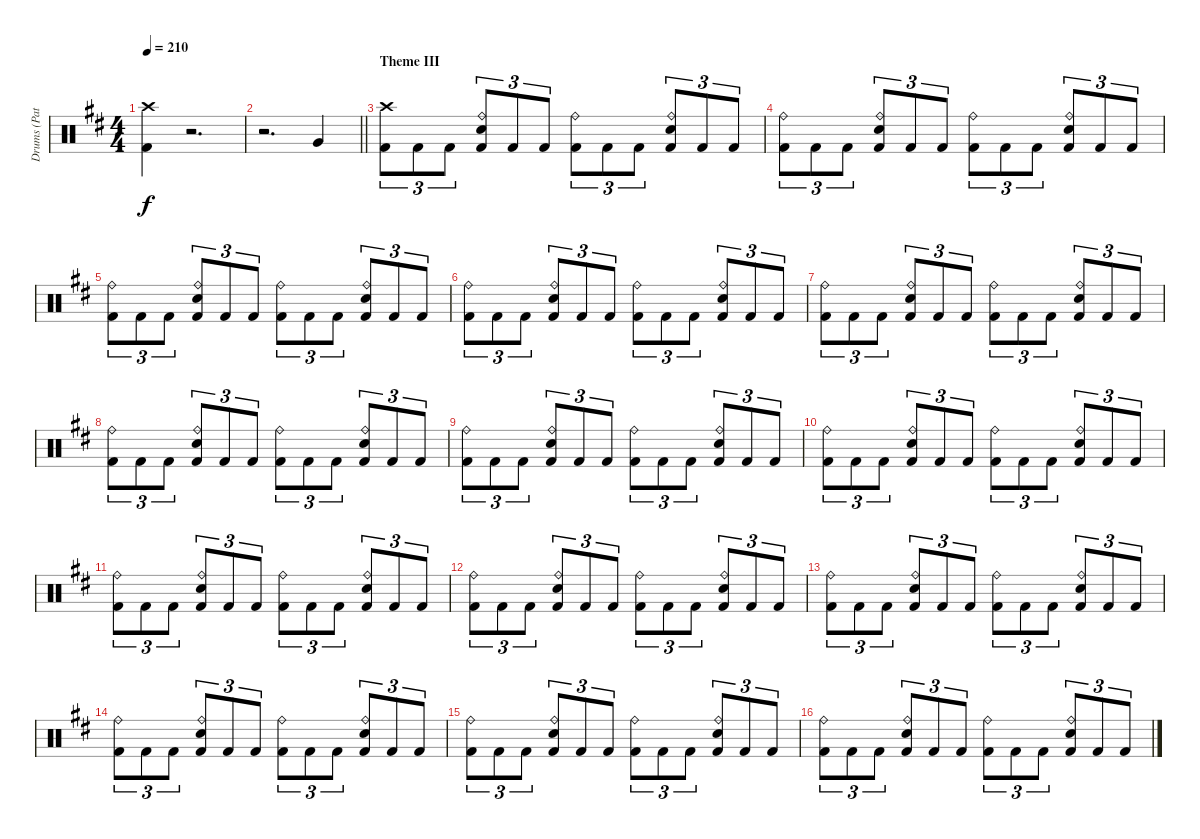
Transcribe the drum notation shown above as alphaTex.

\track ("Drums (Patrick Johansson)" "Drums (Pat") {instrument percussion}
\staff {score}
\articulation defaults
\ts (4 4)
\tempo 210
\clef neutral
\ks d
("Crash high (hit)" "Kick (hit) 2").4{dy f} r.2{d} |
\barLineRight lightlight
r.2{d} "Very Low Tom (hit)".4 |
\section ("" "Theme III")
("Crash high (hit)" "Kick (hit) 2").8{tu (3 2)} "Kick (hit) 2".8{tu (3 2)} "Kick (hit) 2".8{tu (3 2)} ("Ride (bell)" "Electric Snare (hit)" "Kick (hit) 2").8{tu (3 2)} "Kick (hit) 2".8{tu (3 2)} "Kick (hit) 2".8{tu (3 2)} ("Ride (bell)" "Kick (hit) 2").8{tu (3 2)} "Kick (hit) 2".8{tu (3 2)} "Kick (hit) 2".8{tu (3 2)} ("Ride (bell)" "Electric Snare (hit)" "Kick (hit) 2").8{tu (3 2)} "Kick (hit) 2".8{tu (3 2)} "Kick (hit) 2".8{tu (3 2)} |
("Ride (bell)" "Kick (hit) 2").8{tu (3 2)} "Kick (hit) 2".8{tu (3 2)} "Kick (hit) 2".8{tu (3 2)} ("Ride (bell)" "Electric Snare (hit)" "Kick (hit) 2").8{tu (3 2)} "Kick (hit) 2".8{tu (3 2)} "Kick (hit) 2".8{tu (3 2)} ("Ride (bell)" "Kick (hit) 2").8{tu (3 2)} "Kick (hit) 2".8{tu (3 2)} "Kick (hit) 2".8{tu (3 2)} ("Ride (bell)" "Electric Snare (hit)" "Kick (hit) 2").8{tu (3 2)} "Kick (hit) 2".8{tu (3 2)} "Kick (hit) 2".8{tu (3 2)} |
("Ride (bell)" "Kick (hit) 2").8{tu (3 2)} "Kick (hit) 2".8{tu (3 2)} "Kick (hit) 2".8{tu (3 2)} ("Ride (bell)" "Electric Snare (hit)" "Kick (hit) 2").8{tu (3 2)} "Kick (hit) 2".8{tu (3 2)} "Kick (hit) 2".8{tu (3 2)} ("Ride (bell)" "Kick (hit) 2").8{tu (3 2)} "Kick (hit) 2".8{tu (3 2)} "Kick (hit) 2".8{tu (3 2)} ("Ride (bell)" "Electric Snare (hit)" "Kick (hit) 2").8{tu (3 2)} "Kick (hit) 2".8{tu (3 2)} "Kick (hit) 2".8{tu (3 2)} |
("Ride (bell)" "Kick (hit) 2").8{tu (3 2)} "Kick (hit) 2".8{tu (3 2)} "Kick (hit) 2".8{tu (3 2)} ("Ride (bell)" "Electric Snare (hit)" "Kick (hit) 2").8{tu (3 2)} "Kick (hit) 2".8{tu (3 2)} "Kick (hit) 2".8{tu (3 2)} ("Ride (bell)" "Kick (hit) 2").8{tu (3 2)} "Kick (hit) 2".8{tu (3 2)} "Kick (hit) 2".8{tu (3 2)} ("Ride (bell)" "Electric Snare (hit)" "Kick (hit) 2").8{tu (3 2)} "Kick (hit) 2".8{tu (3 2)} "Kick (hit) 2".8{tu (3 2)} |
("Ride (bell)" "Kick (hit) 2").8{tu (3 2)} "Kick (hit) 2".8{tu (3 2)} "Kick (hit) 2".8{tu (3 2)} ("Ride (bell)" "Electric Snare (hit)" "Kick (hit) 2").8{tu (3 2)} "Kick (hit) 2".8{tu (3 2)} "Kick (hit) 2".8{tu (3 2)} ("Ride (bell)" "Kick (hit) 2").8{tu (3 2)} "Kick (hit) 2".8{tu (3 2)} "Kick (hit) 2".8{tu (3 2)} ("Ride (bell)" "Electric Snare (hit)" "Kick (hit) 2").8{tu (3 2)} "Kick (hit) 2".8{tu (3 2)} "Kick (hit) 2".8{tu (3 2)} |
("Ride (bell)" "Kick (hit) 2").8{tu (3 2)} "Kick (hit) 2".8{tu (3 2)} "Kick (hit) 2".8{tu (3 2)} ("Ride (bell)" "Electric Snare (hit)" "Kick (hit) 2").8{tu (3 2)} "Kick (hit) 2".8{tu (3 2)} "Kick (hit) 2".8{tu (3 2)} ("Ride (bell)" "Kick (hit) 2").8{tu (3 2)} "Kick (hit) 2".8{tu (3 2)} "Kick (hit) 2".8{tu (3 2)} ("Ride (bell)" "Electric Snare (hit)" "Kick (hit) 2").8{tu (3 2)} "Kick (hit) 2".8{tu (3 2)} "Kick (hit) 2".8{tu (3 2)} |
("Ride (bell)" "Kick (hit) 2").8{tu (3 2)} "Kick (hit) 2".8{tu (3 2)} "Kick (hit) 2".8{tu (3 2)} ("Ride (bell)" "Electric Snare (hit)" "Kick (hit) 2").8{tu (3 2)} "Kick (hit) 2".8{tu (3 2)} "Kick (hit) 2".8{tu (3 2)} ("Ride (bell)" "Kick (hit) 2").8{tu (3 2)} "Kick (hit) 2".8{tu (3 2)} "Kick (hit) 2".8{tu (3 2)} ("Ride (bell)" "Electric Snare (hit)" "Kick (hit) 2").8{tu (3 2)} "Kick (hit) 2".8{tu (3 2)} "Kick (hit) 2".8{tu (3 2)} |
("Ride (bell)" "Kick (hit) 2").8{tu (3 2)} "Kick (hit) 2".8{tu (3 2)} "Kick (hit) 2".8{tu (3 2)} ("Ride (bell)" "Electric Snare (hit)" "Kick (hit) 2").8{tu (3 2)} "Kick (hit) 2".8{tu (3 2)} "Kick (hit) 2".8{tu (3 2)} ("Ride (bell)" "Kick (hit) 2").8{tu (3 2)} "Kick (hit) 2".8{tu (3 2)} "Kick (hit) 2".8{tu (3 2)} ("Ride (bell)" "Electric Snare (hit)" "Kick (hit) 2").8{tu (3 2)} "Kick (hit) 2".8{tu (3 2)} "Kick (hit) 2".8{tu (3 2)} |
("Ride (bell)" "Kick (hit) 2").8{tu (3 2)} "Kick (hit) 2".8{tu (3 2)} "Kick (hit) 2".8{tu (3 2)} ("Ride (bell)" "Electric Snare (hit)" "Kick (hit) 2").8{tu (3 2)} "Kick (hit) 2".8{tu (3 2)} "Kick (hit) 2".8{tu (3 2)} ("Ride (bell)" "Kick (hit) 2").8{tu (3 2)} "Kick (hit) 2".8{tu (3 2)} "Kick (hit) 2".8{tu (3 2)} ("Ride (bell)" "Electric Snare (hit)" "Kick (hit) 2").8{tu (3 2)} "Kick (hit) 2".8{tu (3 2)} "Kick (hit) 2".8{tu (3 2)} |
("Ride (bell)" "Kick (hit) 2").8{tu (3 2)} "Kick (hit) 2".8{tu (3 2)} "Kick (hit) 2".8{tu (3 2)} ("Ride (bell)" "Electric Snare (hit)" "Kick (hit) 2").8{tu (3 2)} "Kick (hit) 2".8{tu (3 2)} "Kick (hit) 2".8{tu (3 2)} ("Ride (bell)" "Kick (hit) 2").8{tu (3 2)} "Kick (hit) 2".8{tu (3 2)} "Kick (hit) 2".8{tu (3 2)} ("Ride (bell)" "Electric Snare (hit)" "Kick (hit) 2").8{tu (3 2)} "Kick (hit) 2".8{tu (3 2)} "Kick (hit) 2".8{tu (3 2)} |
("Ride (bell)" "Kick (hit) 2").8{tu (3 2)} "Kick (hit) 2".8{tu (3 2)} "Kick (hit) 2".8{tu (3 2)} ("Ride (bell)" "Electric Snare (hit)" "Kick (hit) 2").8{tu (3 2)} "Kick (hit) 2".8{tu (3 2)} "Kick (hit) 2".8{tu (3 2)} ("Ride (bell)" "Kick (hit) 2").8{tu (3 2)} "Kick (hit) 2".8{tu (3 2)} "Kick (hit) 2".8{tu (3 2)} ("Ride (bell)" "Electric Snare (hit)" "Kick (hit) 2").8{tu (3 2)} "Kick (hit) 2".8{tu (3 2)} "Kick (hit) 2".8{tu (3 2)} |
("Ride (bell)" "Kick (hit) 2").8{tu (3 2)} "Kick (hit) 2".8{tu (3 2)} "Kick (hit) 2".8{tu (3 2)} ("Ride (bell)" "Electric Snare (hit)" "Kick (hit) 2").8{tu (3 2)} "Kick (hit) 2".8{tu (3 2)} "Kick (hit) 2".8{tu (3 2)} ("Ride (bell)" "Kick (hit) 2").8{tu (3 2)} "Kick (hit) 2".8{tu (3 2)} "Kick (hit) 2".8{tu (3 2)} ("Ride (bell)" "Electric Snare (hit)" "Kick (hit) 2").8{tu (3 2)} "Kick (hit) 2".8{tu (3 2)} "Kick (hit) 2".8{tu (3 2)} |
("Ride (bell)" "Kick (hit) 2").8{tu (3 2)} "Kick (hit) 2".8{tu (3 2)} "Kick (hit) 2".8{tu (3 2)} ("Ride (bell)" "Electric Snare (hit)" "Kick (hit) 2").8{tu (3 2)} "Kick (hit) 2".8{tu (3 2)} "Kick (hit) 2".8{tu (3 2)} ("Ride (bell)" "Kick (hit) 2").8{tu (3 2)} "Kick (hit) 2".8{tu (3 2)} "Kick (hit) 2".8{tu (3 2)} ("Ride (bell)" "Electric Snare (hit)" "Kick (hit) 2").8{tu (3 2)} "Kick (hit) 2".8{tu (3 2)} "Kick (hit) 2".8{tu (3 2)} |
("Ride (bell)" "Kick (hit) 2").8{tu (3 2)} "Kick (hit) 2".8{tu (3 2)} "Kick (hit) 2".8{tu (3 2)} ("Ride (bell)" "Electric Snare (hit)" "Kick (hit) 2").8{tu (3 2)} "Kick (hit) 2".8{tu (3 2)} "Kick (hit) 2".8{tu (3 2)} ("Ride (bell)" "Kick (hit) 2").8{tu (3 2)} "Kick (hit) 2".8{tu (3 2)} "Kick (hit) 2".8{tu (3 2)} ("Ride (bell)" "Electric Snare (hit)" "Kick (hit) 2").8{tu (3 2)} "Kick (hit) 2".8{tu (3 2)} "Kick (hit) 2".8{tu (3 2)}
